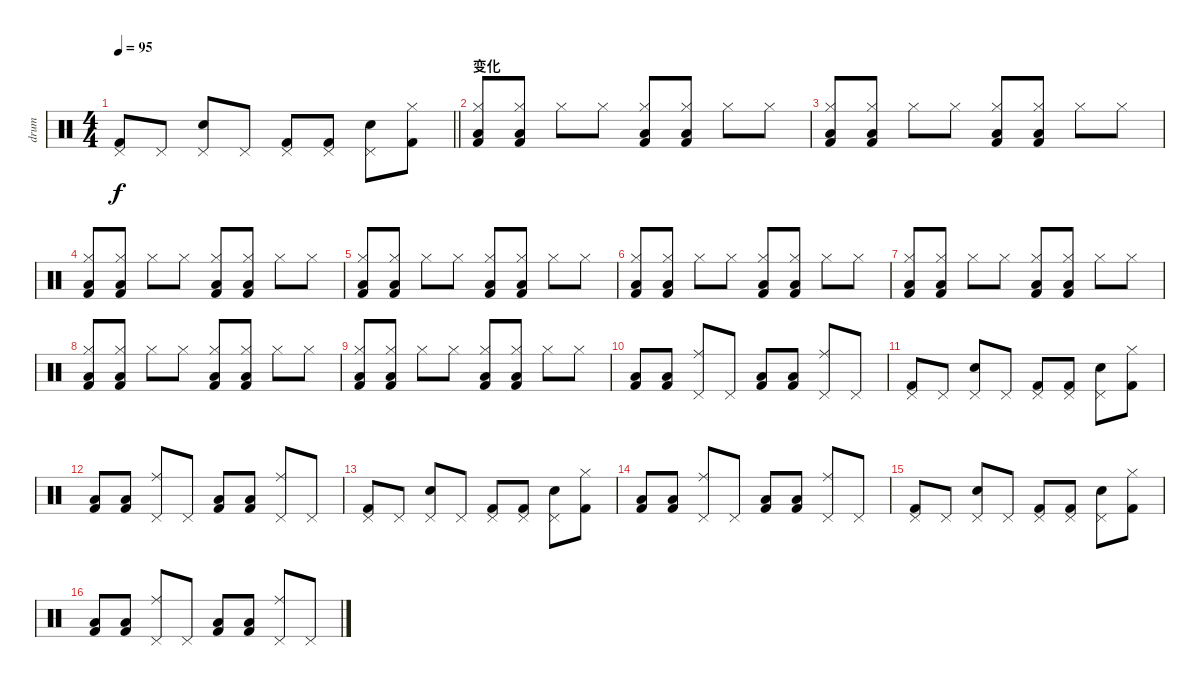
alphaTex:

\track ("drum" "drum") {instrument percussion}
\staff {score}
\articulation defaults
\ts (4 4)
\tempo 95
\clef neutral
\barLineRight lightlight
\ks c
("Pedal Hi-Hat (hit)" "Kick (hit) 2").8{dy f} "Pedal Hi-Hat (hit)".8 ("Pedal Hi-Hat (hit)" "Hand Clap (hit)").8 "Pedal Hi-Hat (hit)".8 ("Pedal Hi-Hat (hit)" "Kick (hit) 2").8 ("Pedal Hi-Hat (hit)" "Kick (hit) 2").8 ("Pedal Hi-Hat (hit)" "Hand Clap (hit)").8 ("Hi-Hat (closed)" "Kick (hit) 2").8 |
\section ("" "变化")
("Kick (hit) 2" "Low Tom (hit)" "Hi-Hat (closed)").8 ("Kick (hit) 2" "Low Tom (hit)" "Hi-Hat (closed)").8 "Hi-Hat (closed)".8 "Hi-Hat (closed)".8 ("Kick (hit) 2" "Low Tom (hit)" "Hi-Hat (closed)").8 ("Kick (hit) 2" "Low Tom (hit)" "Hi-Hat (closed)").8 "Hi-Hat (closed)".8 "Hi-Hat (closed)".8 |
("Kick (hit) 2" "Low Tom (hit)" "Hi-Hat (closed)").8 ("Kick (hit) 2" "Low Tom (hit)" "Hi-Hat (closed)").8 "Hi-Hat (closed)".8 "Hi-Hat (closed)".8 ("Kick (hit) 2" "Low Tom (hit)" "Hi-Hat (closed)").8 ("Kick (hit) 2" "Low Tom (hit)" "Hi-Hat (closed)").8 "Hi-Hat (closed)".8 "Hi-Hat (closed)".8 |
("Kick (hit) 2" "Low Tom (hit)" "Hi-Hat (closed)").8 ("Kick (hit) 2" "Low Tom (hit)" "Hi-Hat (closed)").8 "Hi-Hat (closed)".8 "Hi-Hat (closed)".8 ("Kick (hit) 2" "Low Tom (hit)" "Hi-Hat (closed)").8 ("Kick (hit) 2" "Low Tom (hit)" "Hi-Hat (closed)").8 "Hi-Hat (closed)".8 "Hi-Hat (closed)".8 |
("Kick (hit) 2" "Low Tom (hit)" "Hi-Hat (closed)").8 ("Kick (hit) 2" "Low Tom (hit)" "Hi-Hat (closed)").8 "Hi-Hat (closed)".8 "Hi-Hat (closed)".8 ("Kick (hit) 2" "Low Tom (hit)" "Hi-Hat (closed)").8 ("Kick (hit) 2" "Low Tom (hit)" "Hi-Hat (closed)").8 "Hi-Hat (closed)".8 "Hi-Hat (closed)".8 |
("Kick (hit) 2" "Low Tom (hit)" "Hi-Hat (closed)").8 ("Kick (hit) 2" "Low Tom (hit)" "Hi-Hat (closed)").8 "Hi-Hat (closed)".8 "Hi-Hat (closed)".8 ("Kick (hit) 2" "Low Tom (hit)" "Hi-Hat (closed)").8 ("Kick (hit) 2" "Low Tom (hit)" "Hi-Hat (closed)").8 "Hi-Hat (closed)".8 "Hi-Hat (closed)".8 |
("Kick (hit) 2" "Low Tom (hit)" "Hi-Hat (closed)").8 ("Kick (hit) 2" "Low Tom (hit)" "Hi-Hat (closed)").8 "Hi-Hat (closed)".8 "Hi-Hat (closed)".8 ("Kick (hit) 2" "Low Tom (hit)" "Hi-Hat (closed)").8 ("Kick (hit) 2" "Low Tom (hit)" "Hi-Hat (closed)").8 "Hi-Hat (closed)".8 "Hi-Hat (closed)".8 |
("Kick (hit) 2" "Low Tom (hit)" "Hi-Hat (closed)").8 ("Kick (hit) 2" "Low Tom (hit)" "Hi-Hat (closed)").8 "Hi-Hat (closed)".8 "Hi-Hat (closed)".8 ("Kick (hit) 2" "Low Tom (hit)" "Hi-Hat (closed)").8 ("Kick (hit) 2" "Low Tom (hit)" "Hi-Hat (closed)").8 "Hi-Hat (closed)".8 "Hi-Hat (closed)".8 |
("Kick (hit) 2" "Low Tom (hit)" "Hi-Hat (closed)").8 ("Kick (hit) 2" "Low Tom (hit)" "Hi-Hat (closed)").8 "Hi-Hat (closed)".8 "Hi-Hat (closed)".8 ("Kick (hit) 2" "Low Tom (hit)" "Hi-Hat (closed)").8 ("Kick (hit) 2" "Low Tom (hit)" "Hi-Hat (closed)").8 "Hi-Hat (closed)".8 "Hi-Hat (closed)".8 |
("Kick (hit) 2" "Low Tom (hit)").8 ("Kick (hit) 2" "Low Tom (hit)").8 ("Pedal Hi-Hat (hit)" "Ride (middle)").8 "Pedal Hi-Hat (hit)".8 ("Kick (hit) 2" "Low Tom (hit)").8 ("Kick (hit) 2" "Low Tom (hit)").8 ("Pedal Hi-Hat (hit)" "Ride (middle)").8 "Pedal Hi-Hat (hit)".8 |
("Pedal Hi-Hat (hit)" "Kick (hit) 2").8 "Pedal Hi-Hat (hit)".8 ("Pedal Hi-Hat (hit)" "Hand Clap (hit)").8 "Pedal Hi-Hat (hit)".8 ("Pedal Hi-Hat (hit)" "Kick (hit) 2").8 ("Pedal Hi-Hat (hit)" "Kick (hit) 2").8 ("Pedal Hi-Hat (hit)" "Hand Clap (hit)").8 ("Hi-Hat (closed)" "Kick (hit) 2").8 |
("Kick (hit) 2" "Low Tom (hit)").8 ("Kick (hit) 2" "Low Tom (hit)").8 ("Pedal Hi-Hat (hit)" "Ride (middle)").8 "Pedal Hi-Hat (hit)".8 ("Kick (hit) 2" "Low Tom (hit)").8 ("Kick (hit) 2" "Low Tom (hit)").8 ("Pedal Hi-Hat (hit)" "Ride (middle)").8 "Pedal Hi-Hat (hit)".8 |
("Pedal Hi-Hat (hit)" "Kick (hit) 2").8 "Pedal Hi-Hat (hit)".8 ("Pedal Hi-Hat (hit)" "Hand Clap (hit)").8 "Pedal Hi-Hat (hit)".8 ("Pedal Hi-Hat (hit)" "Kick (hit) 2").8 ("Pedal Hi-Hat (hit)" "Kick (hit) 2").8 ("Pedal Hi-Hat (hit)" "Hand Clap (hit)").8 ("Hi-Hat (closed)" "Kick (hit) 2").8 |
("Kick (hit) 2" "Low Tom (hit)").8 ("Kick (hit) 2" "Low Tom (hit)").8 ("Pedal Hi-Hat (hit)" "Ride (middle)").8 "Pedal Hi-Hat (hit)".8 ("Kick (hit) 2" "Low Tom (hit)").8 ("Kick (hit) 2" "Low Tom (hit)").8 ("Pedal Hi-Hat (hit)" "Ride (middle)").8 "Pedal Hi-Hat (hit)".8 |
("Pedal Hi-Hat (hit)" "Kick (hit) 2").8 "Pedal Hi-Hat (hit)".8 ("Pedal Hi-Hat (hit)" "Hand Clap (hit)").8 "Pedal Hi-Hat (hit)".8 ("Pedal Hi-Hat (hit)" "Kick (hit) 2").8 ("Pedal Hi-Hat (hit)" "Kick (hit) 2").8 ("Pedal Hi-Hat (hit)" "Hand Clap (hit)").8 ("Hi-Hat (closed)" "Kick (hit) 2").8 |
("Kick (hit) 2" "Low Tom (hit)").8 ("Kick (hit) 2" "Low Tom (hit)").8 ("Pedal Hi-Hat (hit)" "Ride (middle)").8 "Pedal Hi-Hat (hit)".8 ("Kick (hit) 2" "Low Tom (hit)").8 ("Kick (hit) 2" "Low Tom (hit)").8 ("Pedal Hi-Hat (hit)" "Ride (middle)").8 "Pedal Hi-Hat (hit)".8
